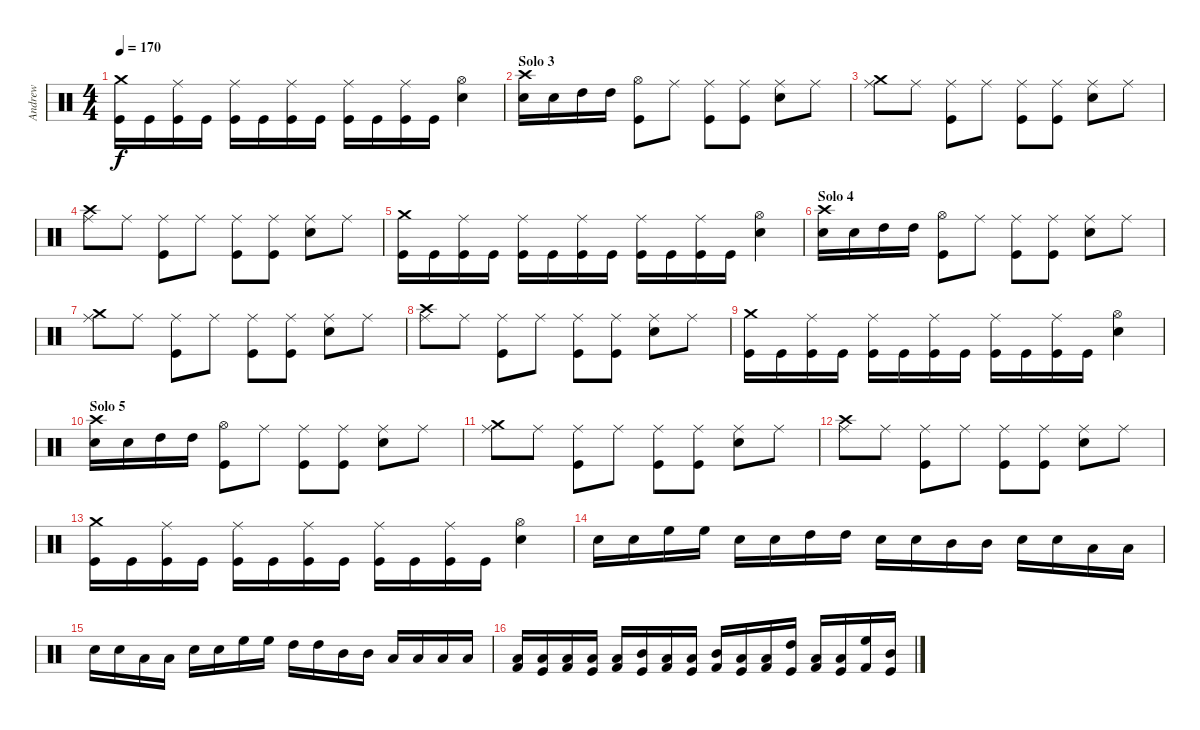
\track ("Andrew" "Andrew") {instrument percussion}
\staff {score}
\articulation defaults
\ts (4 4)
\tempo 170
\clef neutral
\ks c
("Crash medium (hit)" "Kick (hit)").16{dy f} "Kick (hit)".16 ("Ride (middle)" "Kick (hit)").16 "Kick (hit)".16 ("Ride (middle)" "Kick (hit)").16 "Kick (hit)".16 ("Ride (middle)" "Kick (hit)").16 "Kick (hit)".16 ("Ride (middle)" "Kick (hit)").16 "Kick (hit)".16 ("Ride (middle)" "Kick (hit)").16 "Kick (hit)".16 ("Hi-Hat (open)" "Snare (hit) 2").4 |
\section ("" "Solo 3")
("Crash high (hit)" "Snare (hit) 2").16 "Snare (hit) 2".16 "High Tom (hit)".16 "High Tom (hit)".16 ("Hi-Hat (open)" "Kick (hit)").8 "Ride (middle)".8 ("Ride (middle)" "Kick (hit)").8 ("Ride (middle)" "Kick (hit)").8 ("Ride (middle)" "Snare (hit) 2").8 "Ride (middle)".8 |
("Crash medium (hit)" "Ride (middle)").8 "Ride (middle)".8 ("Ride (middle)" "Kick (hit)").8 "Ride (middle)".8 ("Ride (middle)" "Kick (hit)").8 ("Ride (middle)" "Kick (hit)").8 ("Ride (middle)" "Snare (hit) 2").8 "Ride (middle)".8 |
("Crash high (hit)" "Ride (middle)").8 "Ride (middle)".8 ("Ride (middle)" "Kick (hit)").8 "Ride (middle)".8 ("Ride (middle)" "Kick (hit)").8 ("Ride (middle)" "Kick (hit)").8 ("Ride (middle)" "Snare (hit) 2").8 "Ride (middle)".8 |
("Crash medium (hit)" "Kick (hit)").16 "Kick (hit)".16 ("Ride (middle)" "Kick (hit)").16 "Kick (hit)".16 ("Ride (middle)" "Kick (hit)").16 "Kick (hit)".16 ("Ride (middle)" "Kick (hit)").16 "Kick (hit)".16 ("Ride (middle)" "Kick (hit)").16 "Kick (hit)".16 ("Ride (middle)" "Kick (hit)").16 "Kick (hit)".16 ("Hi-Hat (open)" "Snare (hit) 2").4 |
\section ("" "Solo 4")
("Crash high (hit)" "Snare (hit) 2").16 "Snare (hit) 2".16 "High Tom (hit)".16 "High Tom (hit)".16 ("Hi-Hat (open)" "Kick (hit)").8 "Ride (middle)".8 ("Ride (middle)" "Kick (hit)").8 ("Ride (middle)" "Kick (hit)").8 ("Ride (middle)" "Snare (hit) 2").8 "Ride (middle)".8 |
("Crash medium (hit)" "Ride (middle)").8 "Ride (middle)".8 ("Ride (middle)" "Kick (hit)").8 "Ride (middle)".8 ("Ride (middle)" "Kick (hit)").8 ("Ride (middle)" "Kick (hit)").8 ("Ride (middle)" "Snare (hit) 2").8 "Ride (middle)".8 |
("Crash high (hit)" "Ride (middle)").8 "Ride (middle)".8 ("Ride (middle)" "Kick (hit)").8 "Ride (middle)".8 ("Ride (middle)" "Kick (hit)").8 ("Ride (middle)" "Kick (hit)").8 ("Ride (middle)" "Snare (hit) 2").8 "Ride (middle)".8 |
("Crash medium (hit)" "Kick (hit)").16 "Kick (hit)".16 ("Ride (middle)" "Kick (hit)").16 "Kick (hit)".16 ("Ride (middle)" "Kick (hit)").16 "Kick (hit)".16 ("Ride (middle)" "Kick (hit)").16 "Kick (hit)".16 ("Ride (middle)" "Kick (hit)").16 "Kick (hit)".16 ("Ride (middle)" "Kick (hit)").16 "Kick (hit)".16 ("Hi-Hat (open)" "Snare (hit) 2").4 |
\section ("" "Solo 5")
("Crash high (hit)" "Snare (hit) 2").16 "Snare (hit) 2".16 "High Tom (hit)".16 "High Tom (hit)".16 ("Hi-Hat (open)" "Kick (hit)").8 "Ride (middle)".8 ("Ride (middle)" "Kick (hit)").8 ("Ride (middle)" "Kick (hit)").8 ("Ride (middle)" "Snare (hit) 2").8 "Ride (middle)".8 |
("Crash medium (hit)" "Ride (middle)").8 "Ride (middle)".8 ("Ride (middle)" "Kick (hit)").8 "Ride (middle)".8 ("Ride (middle)" "Kick (hit)").8 ("Ride (middle)" "Kick (hit)").8 ("Ride (middle)" "Snare (hit) 2").8 "Ride (middle)".8 |
("Crash high (hit)" "Ride (middle)").8 "Ride (middle)".8 ("Ride (middle)" "Kick (hit)").8 "Ride (middle)".8 ("Ride (middle)" "Kick (hit)").8 ("Ride (middle)" "Kick (hit)").8 ("Ride (middle)" "Snare (hit) 2").8 "Ride (middle)".8 |
("Crash medium (hit)" "Kick (hit)").16 "Kick (hit)".16 ("Ride (middle)" "Kick (hit)").16 "Kick (hit)".16 ("Ride (middle)" "Kick (hit)").16 "Kick (hit)".16 ("Ride (middle)" "Kick (hit)").16 "Kick (hit)".16 ("Ride (middle)" "Kick (hit)").16 "Kick (hit)".16 ("Ride (middle)" "Kick (hit)").16 "Kick (hit)".16 ("Hi-Hat (open)" "Snare (hit) 2").4 |
"Snare (hit) 2".16 "Snare (hit) 2".16 "High Floor Tom (hit)".16 "High Floor Tom (hit)".16 "Snare (hit) 2".16 "Snare (hit) 2".16 "High Tom (hit)".16 "High Tom (hit)".16 "Snare (hit) 2".16 "Snare (hit) 2".16 "Mid Tom (hit)".16 "Mid Tom (hit)".16 "Snare (hit) 2".16 "Snare (hit) 2".16 "Low Tom (hit)".16 "Low Tom (hit)".16 |
"Snare (hit) 2".16 "Snare (hit) 2".16 "Low Floor Tom (hit)".16 "Low Floor Tom (hit)".16 "Snare (hit) 2".16 "Snare (hit) 2".16 "High Floor Tom (hit)".16 "High Floor Tom (hit)".16 "High Tom (hit)".16 "High Tom (hit)".16 "Mid Tom (hit)".16 "Mid Tom (hit)".16 "Low Tom (hit)".16 "Low Tom (hit)".16 "Low Floor Tom (hit)".16 "Low Floor Tom (hit)".16 |
("Low Tom (hit)" "Kick (hit) 2").16 ("Low Floor Tom (hit)" "Kick (hit)").16 ("Low Floor Tom (hit)" "Kick (hit) 2").16 ("Low Tom (hit)" "Kick (hit)").16 ("Low Floor Tom (hit)" "Kick (hit) 2").16 ("Mid Tom (hit)" "Kick (hit)").16 ("Low Floor Tom (hit)" "Kick (hit) 2").16 ("Low Floor Tom (hit)" "Kick (hit)").16 ("Mid Tom (hit)" "Kick (hit) 2").16 ("Low Tom (hit)" "Kick (hit)").16 ("Low Tom (hit)" "Kick (hit) 2").16 ("High Tom (hit)" "Kick (hit)").16 ("Low Tom (hit)" "Kick (hit) 2").16 ("Low Floor Tom (hit)" "Kick (hit)").16 ("High Floor Tom (hit)" "Kick (hit) 2").16 ("Mid Tom (hit)" "Kick (hit)").16
